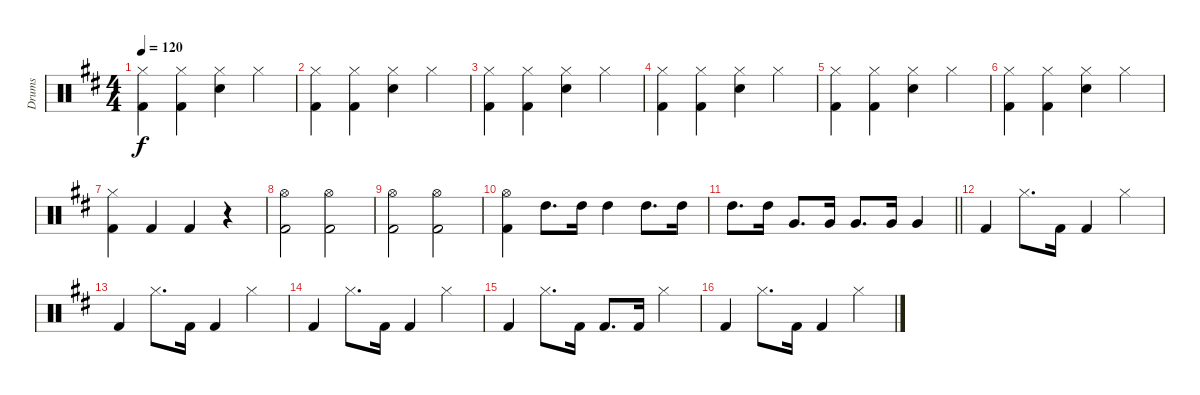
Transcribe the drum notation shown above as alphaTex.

\track ("Drums" "Drums") {instrument percussion}
\staff {score}
\articulation defaults
\ts (4 4)
\tempo 120
\clef neutral
\ks d
("Hi-Hat (closed)" "Kick (hit) 2").4{dy f} ("Hi-Hat (closed)" "Kick (hit) 2").4 ("Hi-Hat (closed)" "Snare (hit) 2").4 "Hi-Hat (closed)".4 |
("Hi-Hat (closed)" "Kick (hit) 2").4 ("Hi-Hat (closed)" "Kick (hit) 2").4 ("Hi-Hat (closed)" "Snare (hit) 2").4 "Hi-Hat (closed)".4 |
("Hi-Hat (closed)" "Kick (hit) 2").4 ("Hi-Hat (closed)" "Kick (hit) 2").4 ("Hi-Hat (closed)" "Snare (hit) 2").4 "Hi-Hat (closed)".4 |
("Hi-Hat (closed)" "Kick (hit) 2").4 ("Hi-Hat (closed)" "Kick (hit) 2").4 ("Hi-Hat (closed)" "Snare (hit) 2").4 "Hi-Hat (closed)".4 |
("Hi-Hat (closed)" "Kick (hit) 2").4 ("Hi-Hat (closed)" "Kick (hit) 2").4 ("Hi-Hat (closed)" "Snare (hit) 2").4 "Hi-Hat (closed)".4 |
("Hi-Hat (closed)" "Kick (hit) 2").4 ("Hi-Hat (closed)" "Kick (hit) 2").4 ("Hi-Hat (closed)" "Snare (hit) 2").4 "Hi-Hat (closed)".4 |
("Hi-Hat (closed)" "Kick (hit) 2").4 "Kick (hit) 2".4 "Kick (hit) 2".4 r.4 |
("Hi-Hat (open)" "Kick (hit) 2").2 ("Hi-Hat (open)" "Kick (hit) 2").2 |
("Hi-Hat (open)" "Kick (hit) 2").2 ("Hi-Hat (open)" "Kick (hit) 2").2 |
("Hi-Hat (open)" "Kick (hit) 2").4 "High Tom (hit)".8{d} "High Tom (hit)".16 "High Tom (hit)".4 "High Tom (hit)".8{d} "High Tom (hit)".16 |
\barLineRight lightlight "High Tom (hit)".8{d} "High Tom (hit)".16 "Very Low Tom (hit)".8{d} "Very Low Tom (hit)".16 "Very Low Tom (hit)".8{d} "Very Low Tom (hit)".16 "Very Low Tom (hit)".4
|
"Kick (hit) 2".4 "Hi-Hat (closed)".8{d} "Kick (hit) 2".16 "Kick (hit) 2".4 "Hi-Hat (closed)".4 |
"Kick (hit) 2".4 "Hi-Hat (closed)".8{d} "Kick (hit) 2".16 "Kick (hit) 2".4 "Hi-Hat (closed)".4 |
"Kick (hit) 2".4 "Hi-Hat (closed)".8{d} "Kick (hit) 2".16 "Kick (hit) 2".4 "Hi-Hat (closed)".4 |
"Kick (hit) 2".4 "Hi-Hat (closed)".8{d} "Kick (hit) 2".16 "Kick (hit) 2".8{d} "Kick (hit) 2".16 "Hi-Hat (closed)".4 |
"Kick (hit) 2".4 "Hi-Hat (closed)".8{d} "Kick (hit) 2".16 "Kick (hit) 2".4 "Hi-Hat (closed)".4
